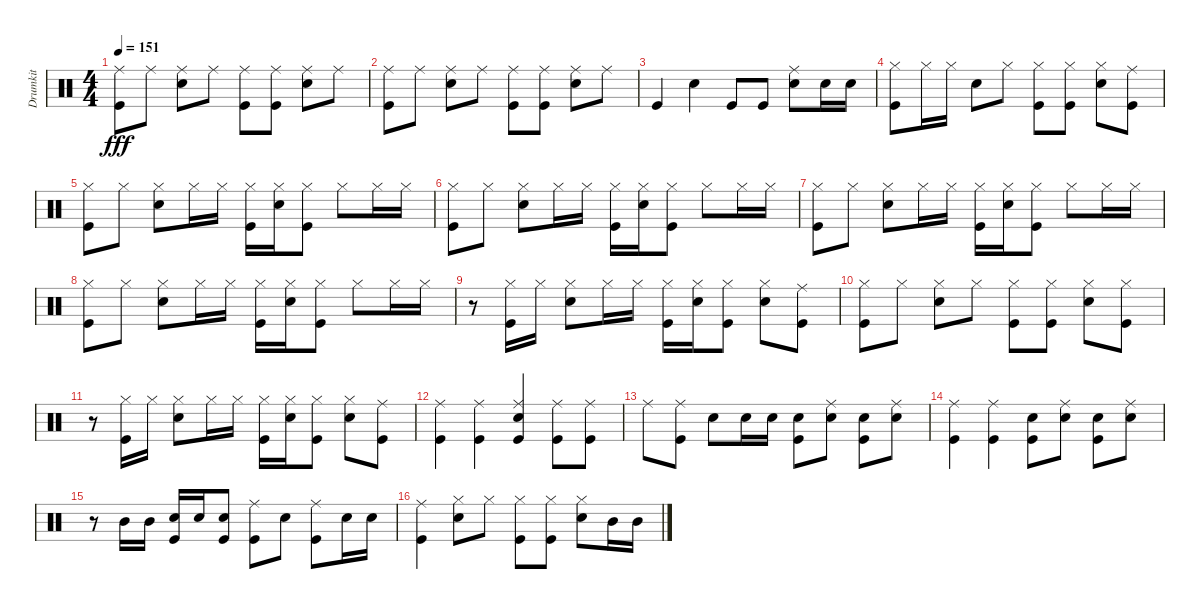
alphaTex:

\track ("Drumkit" "Drumkit") {instrument percussion}
\staff {score}
\articulation defaults
\ts (4 4)
\tempo 151
\clef neutral
\ks c
("Kick (hit)" "Ride (middle)").8{dy fff} "Ride (middle)".8 ("Snare (hit) 2" "Ride (middle)").8 "Ride (middle)".8 ("Kick (hit)" "Ride (middle)").8 ("Kick (hit)" "Ride (middle)").8 ("Snare (hit) 2" "Ride (middle)").8 "Ride (middle)".8 |
("Kick (hit)" "Ride (middle)").8 "Ride (middle)".8 ("Snare (hit) 2" "Ride (middle)").8 "Ride (middle)".8 ("Kick (hit)" "Ride (middle)").8 ("Kick (hit)" "Ride (middle)").8 ("Snare (hit) 2" "Ride (middle)").8 "Ride (middle)".8 |
"Kick (hit)".4 "Snare (hit) 2".4 "Kick (hit)".8 "Kick (hit)".8 ("Ride (middle)" "Snare (hit) 2").8 "Snare (hit) 2".16 "Snare (hit) 2".16 |
("Hi-Hat (closed)" "Kick (hit)").8 "Hi-Hat (closed)".16 "Hi-Hat (closed)".16 "Snare (hit) 2".8 "Hi-Hat (closed)".8 ("Kick (hit)" "Hi-Hat (closed)").8 ("Kick (hit)" "Hi-Hat (closed)").8 ("Hi-Hat (closed)" "Snare (hit) 2").8 ("Ride (middle)" "Kick (hit)").8 |
("Kick (hit)" "Hi-Hat (closed)").8 "Hi-Hat (closed)".8 ("Snare (hit) 2" "Hi-Hat (closed)").8 "Hi-Hat (closed)".16 "Hi-Hat (closed)".16 ("Kick (hit)" "Hi-Hat (closed)").16 ("Snare (hit) 2" "Hi-Hat (closed)").16 ("Kick (hit)" "Hi-Hat (closed)").8 "Hi-Hat (closed)".8 "Hi-Hat (closed)".16 "Hi-Hat (closed)".16 |
("Kick (hit)" "Hi-Hat (closed)").8 "Hi-Hat (closed)".8 ("Snare (hit) 2" "Hi-Hat (closed)").8 "Hi-Hat (closed)".16 "Hi-Hat (closed)".16 ("Kick (hit)" "Hi-Hat (closed)").16 ("Snare (hit) 2" "Hi-Hat (closed)").16 ("Kick (hit)" "Hi-Hat (closed)").8 "Hi-Hat (closed)".8 "Hi-Hat (closed)".16 "Hi-Hat (closed)".16 |
("Kick (hit)" "Hi-Hat (closed)").8 "Hi-Hat (closed)".8 ("Snare (hit) 2" "Hi-Hat (closed)").8 "Hi-Hat (closed)".16 "Hi-Hat (closed)".16 ("Kick (hit)" "Hi-Hat (closed)").16 ("Snare (hit) 2" "Hi-Hat (closed)").16 ("Kick (hit)" "Hi-Hat (closed)").8 "Hi-Hat (closed)".8 "Hi-Hat (closed)".16 "Hi-Hat (closed)".16 |
("Kick (hit)" "Hi-Hat (closed)").8 "Hi-Hat (closed)".8 ("Snare (hit) 2" "Hi-Hat (closed)").8 "Hi-Hat (closed)".16 "Hi-Hat (closed)".16 ("Kick (hit)" "Hi-Hat (closed)").16 ("Snare (hit) 2" "Hi-Hat (closed)").16 ("Kick (hit)" "Hi-Hat (closed)").8 "Hi-Hat (closed)".8 "Hi-Hat (closed)".16 "Hi-Hat (closed)".16 |
r.8 ("Hi-Hat (closed)" "Kick (hit)").16 "Hi-Hat (closed)".16 ("Snare (hit) 2" "Hi-Hat (closed)").8 "Hi-Hat (closed)".16 "Hi-Hat (closed)".16 ("Kick (hit)" "Hi-Hat (closed)").16 ("Snare (hit) 2" "Hi-Hat (closed)").16 ("Kick (hit)" "Hi-Hat (closed)").8 ("Hi-Hat (closed)" "Snare (hit) 2").8 ("Kick (hit)" "Ride (middle)").8 |
("Hi-Hat (closed)" "Kick (hit)").8 "Hi-Hat (closed)".8 ("Hi-Hat (closed)" "Snare (hit) 2").8 "Hi-Hat (closed)".8 ("Hi-Hat (closed)" "Kick (hit)").8 ("Kick (hit)" "Hi-Hat (closed)").8 ("Snare (hit) 2" "Hi-Hat (closed)").8 ("Kick (hit)" "Hi-Hat (closed)").8 |
r.8 ("Hi-Hat (closed)" "Kick (hit)").16 "Hi-Hat (closed)".16 ("Snare (hit) 2" "Hi-Hat (closed)").8 "Hi-Hat (closed)".16 "Hi-Hat (closed)".16 ("Kick (hit)" "Hi-Hat (closed)").16 ("Snare (hit) 2" "Hi-Hat (closed)").16 ("Kick (hit)" "Hi-Hat (closed)").8 ("Hi-Hat (closed)" "Snare (hit) 2").8 ("Kick (hit)" "Ride (middle)").8 |
("Kick (hit)" "Ride (middle)").4 ("Kick (hit)" "Ride (middle)").4 ("Snare (hit) 2" "Kick (hit)" "Ride (middle)").4 ("Ride (middle)" "Kick (hit)").8 ("Ride (middle)" "Kick (hit)").8 |
"Ride (middle)".8 ("Kick (hit)" "Ride (middle)").8 "Snare (hit) 2".8 "Snare (hit) 2".16 "Snare (hit) 2".16 ("Kick (hit)" "Snare (hit) 2").8 ("Ride (middle)" "Snare (hit) 2").8 ("Kick (hit)" "Snare (hit) 2").8 ("Ride (middle)" "Snare (hit) 2").8 |
("Kick (hit)" "Ride (middle)").4 ("Kick (hit)" "Ride (middle)").4 ("Kick (hit)" "Snare (hit) 2").8 ("Ride (middle)" "Snare (hit) 2").8 ("Kick (hit)" "Snare (hit) 2").8 ("Ride (middle)" "Snare (hit) 2").8 |
r.8 "Mid Tom (hit)".16 "Mid Tom (hit)".16 ("Snare (hit) 2" "Kick (hit)").16 "Snare (hit) 2".16 ("Snare (hit) 2" "Kick (hit)").8 ("Ride (middle)" "Kick (hit)").8 "Snare (hit) 2".8 ("Ride (middle)" "Kick (hit)").8 "Snare (hit) 2".16 "Snare (hit) 2".16 |
("Ride (middle)" "Kick (hit)").4 ("Snare (hit) 2" "Hi-Hat (closed)").8 "Hi-Hat (closed)".8 ("Hi-Hat (closed)" "Kick (hit)").8 ("Hi-Hat (closed)" "Kick (hit)").8 ("Hi-Hat (closed)" "Snare (hit) 2").8 "Mid Tom (hit)".16 "Mid Tom (hit)".16
